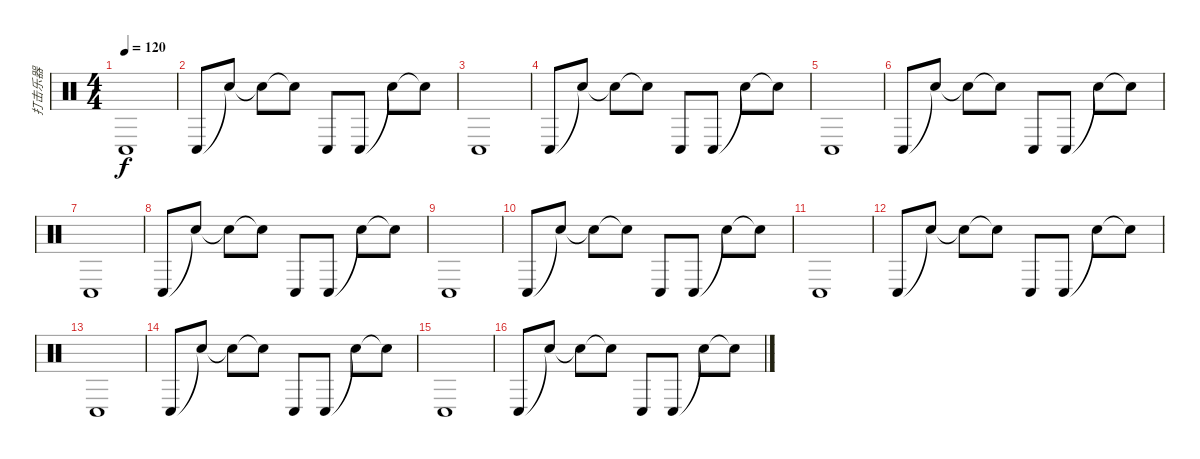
\track ("打击乐器" "打击乐器") {instrument percussion}
\staff {score}
\articulation defaults
\ts (4 4)
\tempo 120
\clef neutral
\ks c "Conga low (hit)".1{dy f}
|
"Conga low (hit)".8 "Snare (hit)"{t}.8 "Snare (hit)"{t}.8 "Snare (hit)"{t}.8 "Conga low (hit)".8 "Conga low (hit)".8 "Snare (hit)"{t}.8 "Snare (hit)"{t}.8 |
"Conga low (hit)".1 |
"Conga low (hit)".8 "Snare (hit)"{t}.8 "Snare (hit)"{t}.8 "Snare (hit)"{t}.8 "Conga low (hit)".8 "Conga low (hit)".8 "Snare (hit)"{t}.8 "Snare (hit)"{t}.8 |
"Conga low (hit)".1 |
"Conga low (hit)".8 "Snare (hit)"{t}.8 "Snare (hit)"{t}.8 "Snare (hit)"{t}.8 "Conga low (hit)".8 "Conga low (hit)".8 "Snare (hit)"{t}.8 "Snare (hit)"{t}.8 |
"Conga low (hit)".1 |
"Conga low (hit)".8 "Snare (hit)"{t}.8 "Snare (hit)"{t}.8 "Snare (hit)"{t}.8 "Conga low (hit)".8 "Conga low (hit)".8 "Snare (hit)"{t}.8 "Snare (hit)"{t}.8 |
"Conga low (hit)".1 |
"Conga low (hit)".8 "Snare (hit)"{t}.8 "Snare (hit)"{t}.8 "Snare (hit)"{t}.8 "Conga low (hit)".8 "Conga low (hit)".8 "Snare (hit)"{t}.8 "Snare (hit)"{t}.8 |
"Conga low (hit)".1 |
"Conga low (hit)".8 "Snare (hit)"{t}.8 "Snare (hit)"{t}.8 "Snare (hit)"{t}.8 "Conga low (hit)".8 "Conga low (hit)".8 "Snare (hit)"{t}.8 "Snare (hit)"{t}.8 |
"Conga low (hit)".1 |
"Conga low (hit)".8 "Snare (hit)"{t}.8 "Snare (hit)"{t}.8 "Snare (hit)"{t}.8 "Conga low (hit)".8 "Conga low (hit)".8 "Snare (hit)"{t}.8 "Snare (hit)"{t}.8 |
"Conga low (hit)".1 |
"Conga low (hit)".8 "Snare (hit)"{t}.8 "Snare (hit)"{t}.8 "Snare (hit)"{t}.8 "Conga low (hit)".8 "Conga low (hit)".8 "Snare (hit)"{t}.8 "Snare (hit)"{t}.8
